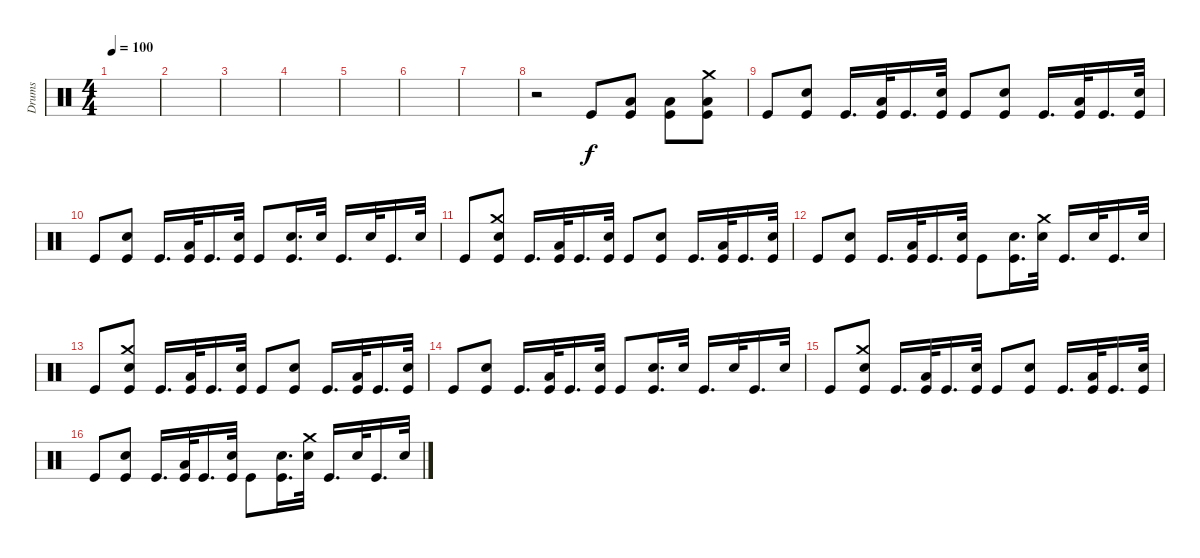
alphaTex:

\track ("Drums" "Drums") {instrument percussion}
\staff {score}
\articulation defaults
\ts (4 4)
\tempo 100
\clef neutral
\ks c
|
|
|
|
|
|
|
r.2 "Kick (hit)".8 ("Low Floor Tom (hit)" "Kick (hit)").8 ("Low Floor Tom (hit)" "Kick (hit)").8 ("Crash medium (hit)" "Low Floor Tom (hit)" "Kick (hit)").8 |
"Kick (hit)".8 ("Electric Snare (hit)" "Kick (hit)").8 "Kick (hit)".16{d} ("Low Floor Tom (hit)" "Kick (hit)").32 "Kick (hit)".16{d} ("Electric Snare (hit)" "Kick (hit)").32 "Kick (hit)".8 ("Electric Snare (hit)" "Kick (hit)").8 "Kick (hit)".16{d} ("Low Floor Tom (hit)" "Kick (hit)").32 "Kick (hit)".16{d} ("Electric Snare (hit)" "Kick (hit)").32 |
"Kick (hit)".8 ("Electric Snare (hit)" "Kick (hit)").8 "Kick (hit)".16{d} ("Low Floor Tom (hit)" "Kick (hit)").32 "Kick (hit)".16{d} ("Electric Snare (hit)" "Kick (hit)").32 "Kick (hit)".8 ("Electric Snare (hit)" "Kick (hit)").16{d} "Electric Snare (hit)".32 "Kick (hit)".16{d} "Electric Snare (hit)".32 "Kick (hit)".16{d} "Electric Snare (hit)".32 |
"Kick (hit)".8 ("Crash medium (hit)" "Electric Snare (hit)" "Kick (hit)").8 "Kick (hit)".16{d} ("Low Floor Tom (hit)" "Kick (hit)").32 "Kick (hit)".16{d} ("Electric Snare (hit)" "Kick (hit)").32 "Kick (hit)".8 ("Electric Snare (hit)" "Kick (hit)").8 "Kick (hit)".16{d} ("Low Floor Tom (hit)" "Kick (hit)").32 "Kick (hit)".16{d} ("Electric Snare (hit)" "Kick (hit)").32 |
"Kick (hit)".8 ("Electric Snare (hit)" "Kick (hit)").8 "Kick (hit)".16{d} ("Low Floor Tom (hit)" "Kick (hit)").32 "Kick (hit)".16{d} ("Electric Snare (hit)" "Kick (hit)").32 "Kick (hit)".8 ("Electric Snare (hit)" "Kick (hit)").16{d} ("Crash medium (hit)" "Electric Snare (hit)").32 "Kick (hit)".16{d} "Electric Snare (hit)".32 "Kick (hit)".16{d} "Electric Snare (hit)".32 |
"Kick (hit)".8 ("Crash medium (hit)" "Electric Snare (hit)" "Kick (hit)").8 "Kick (hit)".16{d} ("Low Floor Tom (hit)" "Kick (hit)").32 "Kick (hit)".16{d} ("Electric Snare (hit)" "Kick (hit)").32 "Kick (hit)".8 ("Electric Snare (hit)" "Kick (hit)").8 "Kick (hit)".16{d} ("Low Floor Tom (hit)" "Kick (hit)").32 "Kick (hit)".16{d} ("Electric Snare (hit)" "Kick (hit)").32 |
"Kick (hit)".8 ("Electric Snare (hit)" "Kick (hit)").8 "Kick (hit)".16{d} ("Low Floor Tom (hit)" "Kick (hit)").32 "Kick (hit)".16{d} ("Electric Snare (hit)" "Kick (hit)").32 "Kick (hit)".8 ("Electric Snare (hit)" "Kick (hit)").16{d} "Electric Snare (hit)".32 "Kick (hit)".16{d} "Electric Snare (hit)".32 "Kick (hit)".16{d} "Electric Snare (hit)".32 |
"Kick (hit)".8 ("Crash medium (hit)" "Electric Snare (hit)" "Kick (hit)").8 "Kick (hit)".16{d} ("Low Floor Tom (hit)" "Kick (hit)").32 "Kick (hit)".16{d} ("Electric Snare (hit)" "Kick (hit)").32 "Kick (hit)".8 ("Electric Snare (hit)" "Kick (hit)").8 "Kick (hit)".16{d} ("Low Floor Tom (hit)" "Kick (hit)").32 "Kick (hit)".16{d} ("Electric Snare (hit)" "Kick (hit)").32 |
"Kick (hit)".8 ("Electric Snare (hit)" "Kick (hit)").8 "Kick (hit)".16{d} ("Low Floor Tom (hit)" "Kick (hit)").32 "Kick (hit)".16{d} ("Electric Snare (hit)" "Kick (hit)").32 "Kick (hit)".8 ("Electric Snare (hit)" "Kick (hit)").16{d} ("Crash medium (hit)" "Electric Snare (hit)").32 "Kick (hit)".16{d} "Electric Snare (hit)".32 "Kick (hit)".16{d} "Electric Snare (hit)".32
